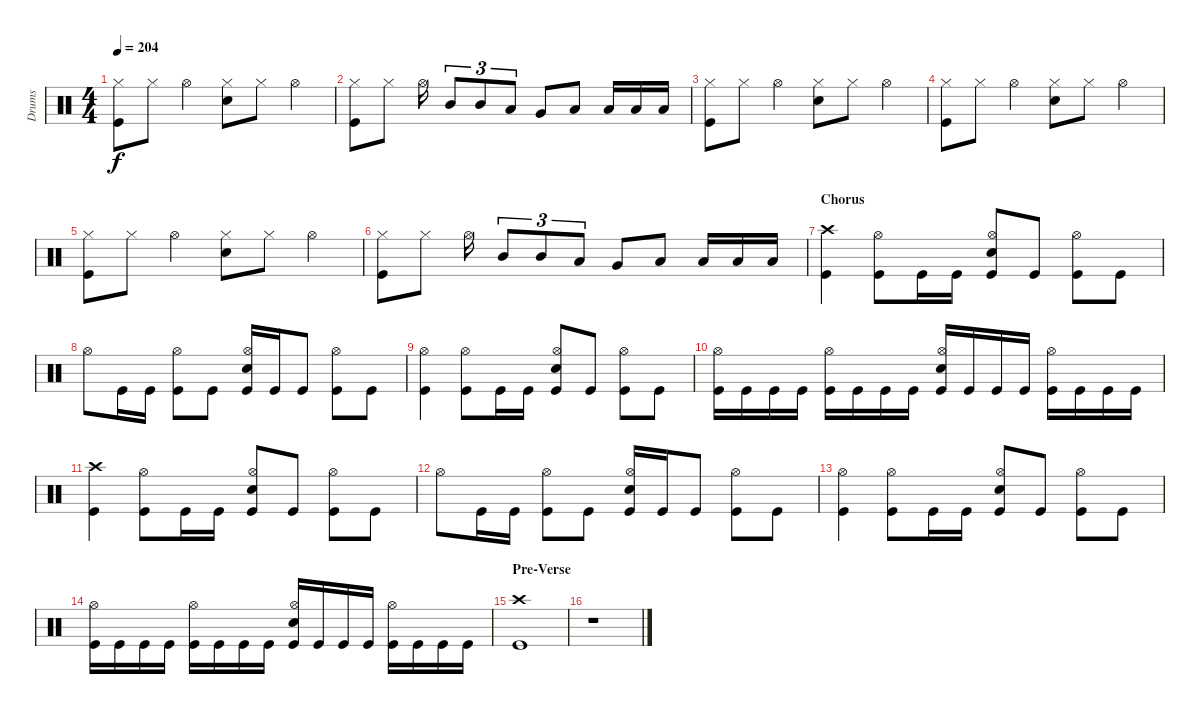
\track ("Drums" "Drums") {instrument percussion}
\staff {score}
\articulation defaults
\ts (4 4)
\tempo 204
\clef neutral
\ks c
("Hi-Hat (closed)" "Kick (hit)").8{dy f} "Hi-Hat (closed)".8 "Hi-Hat (open)".4 ("Hi-Hat (closed)" "Electric Snare (hit)").8 "Hi-Hat (closed)".8 "Hi-Hat (open)".4 |
("Hi-Hat (closed)" "Kick (hit)").8 "Hi-Hat (closed)".8 "Hi-Hat (open)".16 "Mid Tom (hit)".8{tu (3 2)} "Mid Tom (hit)".8{tu (3 2)} "Low Tom (hit)".8{tu (3 2)} "Very Low Tom (hit)".8 "Low Floor Tom (hit)".8 "Low Floor Tom (hit)".16 "Low Floor Tom (hit)".16 "Low Floor Tom (hit)".16 |
("Hi-Hat (closed)" "Kick (hit)").8 "Hi-Hat (closed)".8 "Hi-Hat (open)".4 ("Hi-Hat (closed)" "Electric Snare (hit)").8 "Hi-Hat (closed)".8 "Hi-Hat (open)".4 |
("Hi-Hat (closed)" "Kick (hit)").8 "Hi-Hat (closed)".8 "Hi-Hat (open)".4 ("Hi-Hat (closed)" "Electric Snare (hit)").8 "Hi-Hat (closed)".8 "Hi-Hat (open)".4 |
("Hi-Hat (closed)" "Kick (hit)").8 "Hi-Hat (closed)".8 "Hi-Hat (open)".4 ("Hi-Hat (closed)" "Electric Snare (hit)").8 "Hi-Hat (closed)".8 "Hi-Hat (open)".4 |
("Hi-Hat (closed)" "Kick (hit)").8 "Hi-Hat (closed)".8 "Hi-Hat (open)".16 "Mid Tom (hit)".8{tu (3 2)} "Mid Tom (hit)".8{tu (3 2)} "Low Tom (hit)".8{tu (3 2)} "Very Low Tom (hit)".8 "Low Floor Tom (hit)".8 "Low Floor Tom (hit)".16 "Low Floor Tom (hit)".16 "Low Floor Tom (hit)".16 |
\section ("" "Chorus")
("Crash high (hit)" "Kick (hit)").4 ("Hi-Hat (open)" "Kick (hit)").8 "Kick (hit)".16 "Kick (hit)".16 ("Hi-Hat (open)" "Electric Snare (hit)" "Kick (hit)").8 "Kick (hit)".8 ("Hi-Hat (open)" "Kick (hit)").8 "Kick (hit)".8 |
"Hi-Hat (open)".8 "Kick (hit)".16 "Kick (hit)".16 ("Hi-Hat (open)" "Kick (hit)").8 "Kick (hit)".8 ("Hi-Hat (open)" "Electric Snare (hit)" "Kick (hit)").16 "Kick (hit)".16 "Kick (hit)".8 ("Hi-Hat (open)" "Kick (hit)").8 "Kick (hit)".8 |
("Hi-Hat (open)" "Kick (hit)").4 ("Hi-Hat (open)" "Kick (hit)").8 "Kick (hit)".16 "Kick (hit)".16 ("Hi-Hat (open)" "Electric Snare (hit)" "Kick (hit)").8 "Kick (hit)".8 ("Hi-Hat (open)" "Kick (hit)").8 "Kick (hit)".8 |
("Hi-Hat (open)" "Kick (hit)").16 "Kick (hit)".16 "Kick (hit)".16 "Kick (hit)".16 ("Hi-Hat (open)" "Kick (hit)").16 "Kick (hit)".16 "Kick (hit)".16 "Kick (hit)".16 ("Hi-Hat (open)" "Electric Snare (hit)" "Kick (hit)").16 "Kick (hit)".16 "Kick (hit)".16 "Kick (hit)".16 ("Hi-Hat (open)" "Kick (hit)").16 "Kick (hit)".16 "Kick (hit)".16 "Kick (hit)".16 |
("Crash high (hit)" "Kick (hit)").4 ("Hi-Hat (open)" "Kick (hit)").8 "Kick (hit)".16 "Kick (hit)".16 ("Hi-Hat (open)" "Electric Snare (hit)" "Kick (hit)").8 "Kick (hit)".8 ("Hi-Hat (open)" "Kick (hit)").8 "Kick (hit)".8 |
"Hi-Hat (open)".8 "Kick (hit)".16 "Kick (hit)".16 ("Hi-Hat (open)" "Kick (hit)").8 "Kick (hit)".8 ("Hi-Hat (open)" "Electric Snare (hit)" "Kick (hit)").16 "Kick (hit)".16 "Kick (hit)".8 ("Hi-Hat (open)" "Kick (hit)").8 "Kick (hit)".8 |
("Hi-Hat (open)" "Kick (hit)").4 ("Hi-Hat (open)" "Kick (hit)").8 "Kick (hit)".16 "Kick (hit)".16 ("Hi-Hat (open)" "Electric Snare (hit)" "Kick (hit)").8 "Kick (hit)".8 ("Hi-Hat (open)" "Kick (hit)").8 "Kick (hit)".8 |
("Hi-Hat (open)" "Kick (hit)").16 "Kick (hit)".16 "Kick (hit)".16 "Kick (hit)".16 ("Hi-Hat (open)" "Kick (hit)").16 "Kick (hit)".16 "Kick (hit)".16 "Kick (hit)".16 ("Hi-Hat (open)" "Electric Snare (hit)" "Kick (hit)").16 "Kick (hit)".16 "Kick (hit)".16 "Kick (hit)".16 ("Hi-Hat (open)" "Kick (hit)").16 "Kick (hit)".16 "Kick (hit)".16 "Kick (hit)".16 |
\section ("" "Pre-Verse")
("Crash high (hit)" "Kick (hit)").1 |
r.1
